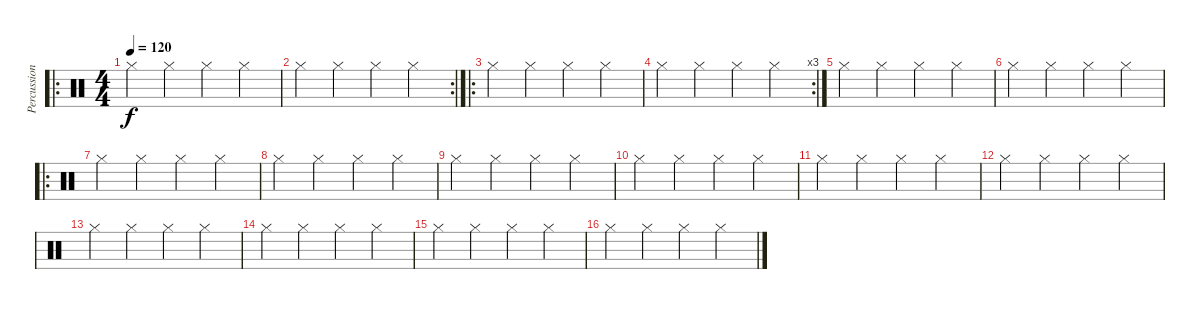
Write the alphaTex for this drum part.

\track ("Percussioni" "Percussion") {instrument percussion}
\staff {score}
\articulation defaults
\ro
\ts (4 4)
\tempo 120
\clef neutral
\ks c "Hi-Hat (closed)".4{dy f} "Hi-Hat (closed)".4 "Hi-Hat (closed)".4 "Hi-Hat (closed)".4
|
\rc 2 "Hi-Hat (closed)".4 "Hi-Hat (closed)".4 "Hi-Hat (closed)".4 "Hi-Hat (closed)".4
|
\ro "Hi-Hat (closed)".4 "Hi-Hat (closed)".4 "Hi-Hat (closed)".4 "Hi-Hat (closed)".4
|
\rc 3 "Hi-Hat (closed)".4 "Hi-Hat (closed)".4 "Hi-Hat (closed)".4 "Hi-Hat (closed)".4
|
"Hi-Hat (closed)".4 "Hi-Hat (closed)".4 "Hi-Hat (closed)".4 "Hi-Hat (closed)".4 |
"Hi-Hat (closed)".4 "Hi-Hat (closed)".4 "Hi-Hat (closed)".4 "Hi-Hat (closed)".4 |
\ro "Hi-Hat (closed)".4 "Hi-Hat (closed)".4 "Hi-Hat (closed)".4 "Hi-Hat (closed)".4
|
"Hi-Hat (closed)".4 "Hi-Hat (closed)".4 "Hi-Hat (closed)".4 "Hi-Hat (closed)".4 |
"Hi-Hat (closed)".4 "Hi-Hat (closed)".4 "Hi-Hat (closed)".4 "Hi-Hat (closed)".4 |
"Hi-Hat (closed)".4 "Hi-Hat (closed)".4 "Hi-Hat (closed)".4 "Hi-Hat (closed)".4 |
"Hi-Hat (closed)".4 "Hi-Hat (closed)".4 "Hi-Hat (closed)".4 "Hi-Hat (closed)".4 |
"Hi-Hat (closed)".4 "Hi-Hat (closed)".4 "Hi-Hat (closed)".4 "Hi-Hat (closed)".4 |
"Hi-Hat (closed)".4 "Hi-Hat (closed)".4 "Hi-Hat (closed)".4 "Hi-Hat (closed)".4 |
"Hi-Hat (closed)".4 "Hi-Hat (closed)".4 "Hi-Hat (closed)".4 "Hi-Hat (closed)".4 |
"Hi-Hat (closed)".4 "Hi-Hat (closed)".4 "Hi-Hat (closed)".4 "Hi-Hat (closed)".4 |
"Hi-Hat (closed)".4 "Hi-Hat (closed)".4 "Hi-Hat (closed)".4 "Hi-Hat (closed)".4
